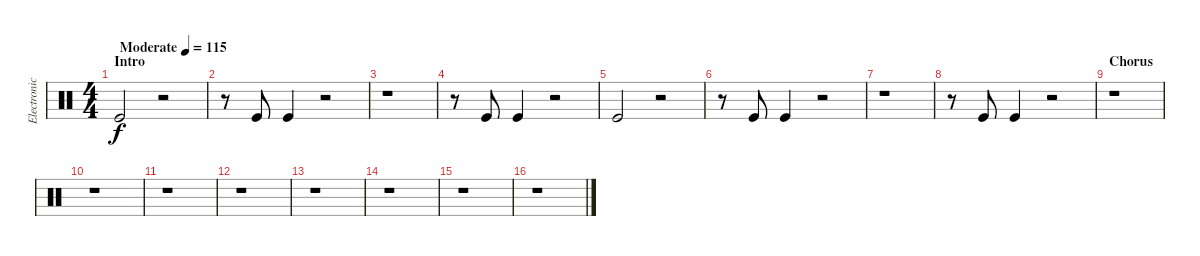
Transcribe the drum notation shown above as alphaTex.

\track ("Electronic Drums" "Electronic") {instrument percussion}
\staff {score}
\articulation defaults
\ts (4 4)
\section ("" "Intro")
\tempo (115 "Moderate")
\clef neutral
\ks c "Kick (hit)".2{dy f}
r.2 |
r.8 "Kick (hit)".8 "Kick (hit)".4 r.2 |
r.1 |
r.8 "Kick (hit)".8 "Kick (hit)".4 r.2 |
"Kick (hit)".2 r.2 |
r.8 "Kick (hit)".8 "Kick (hit)".4 r.2 |
r.1 |
r.8 "Kick (hit)".8 "Kick (hit)".4 r.2 |
\section ("" "Chorus")
r.1 |
r.1 |
r.1 |
r.1 |
r.1 |
r.1 |
r.1 |
r.1
